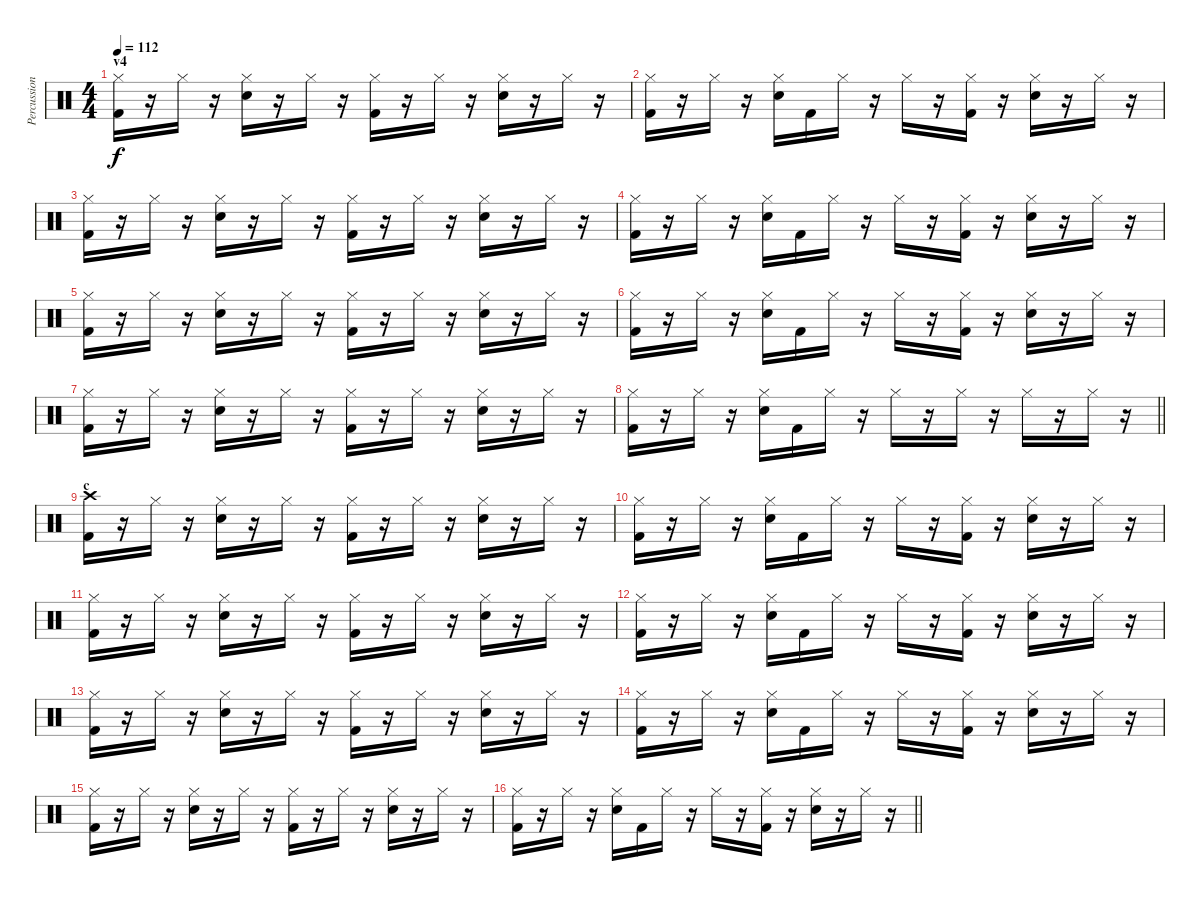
\track ("Percussion" "Percussion") {instrument percussion}
\staff {score}
\articulation defaults
\ts (4 4)
\section ("" "v4")
\tempo 112
\clef neutral
\ks c
("Hi-Hat (closed)" "Kick (hit) 2").16{dy f} r.16 "Hi-Hat (closed)".16 r.16 ("Hi-Hat (closed)" "Snare (hit) 2").16 r.16 "Hi-Hat (closed)".16 r.16 ("Hi-Hat (closed)" "Kick (hit) 2").16 r.16 "Hi-Hat (closed)".16 r.16 ("Hi-Hat (closed)" "Snare (hit) 2").16 r.16 "Hi-Hat (closed)".16 r.16 |
("Hi-Hat (closed)" "Kick (hit) 2").16 r.16 "Hi-Hat (closed)".16 r.16 ("Hi-Hat (closed)" "Snare (hit) 2").16 "Kick (hit) 2".16 "Hi-Hat (closed)".16 r.16 "Hi-Hat (closed)".16 r.16 ("Hi-Hat (closed)" "Kick (hit) 2").16 r.16 ("Hi-Hat (closed)" "Snare (hit) 2").16 r.16 "Hi-Hat (closed)".16 r.16 |
("Hi-Hat (closed)" "Kick (hit) 2").16 r.16 "Hi-Hat (closed)".16 r.16 ("Hi-Hat (closed)" "Snare (hit) 2").16 r.16 "Hi-Hat (closed)".16 r.16 ("Hi-Hat (closed)" "Kick (hit) 2").16 r.16 "Hi-Hat (closed)".16 r.16 ("Hi-Hat (closed)" "Snare (hit) 2").16 r.16 "Hi-Hat (closed)".16 r.16 |
("Hi-Hat (closed)" "Kick (hit) 2").16 r.16 "Hi-Hat (closed)".16 r.16 ("Hi-Hat (closed)" "Snare (hit) 2").16 "Kick (hit) 2".16 "Hi-Hat (closed)".16 r.16 "Hi-Hat (closed)".16 r.16 ("Hi-Hat (closed)" "Kick (hit) 2").16 r.16 ("Hi-Hat (closed)" "Snare (hit) 2").16 r.16 "Hi-Hat (closed)".16 r.16 |
("Hi-Hat (closed)" "Kick (hit) 2").16 r.16 "Hi-Hat (closed)".16 r.16 ("Hi-Hat (closed)" "Snare (hit) 2").16 r.16 "Hi-Hat (closed)".16 r.16 ("Hi-Hat (closed)" "Kick (hit) 2").16 r.16 "Hi-Hat (closed)".16 r.16 ("Hi-Hat (closed)" "Snare (hit) 2").16 r.16 "Hi-Hat (closed)".16 r.16 |
("Hi-Hat (closed)" "Kick (hit) 2").16 r.16 "Hi-Hat (closed)".16 r.16 ("Hi-Hat (closed)" "Snare (hit) 2").16 "Kick (hit) 2".16 "Hi-Hat (closed)".16 r.16 "Hi-Hat (closed)".16 r.16 ("Hi-Hat (closed)" "Kick (hit) 2").16 r.16 ("Hi-Hat (closed)" "Snare (hit) 2").16 r.16 "Hi-Hat (closed)".16 r.16 |
("Hi-Hat (closed)" "Kick (hit) 2").16 r.16 "Hi-Hat (closed)".16 r.16 ("Hi-Hat (closed)" "Snare (hit) 2").16 r.16 "Hi-Hat (closed)".16 r.16 ("Hi-Hat (closed)" "Kick (hit) 2").16 r.16 "Hi-Hat (closed)".16 r.16 ("Hi-Hat (closed)" "Snare (hit) 2").16 r.16 "Hi-Hat (closed)".16 r.16 |
\barLineRight lightlight
("Hi-Hat (closed)" "Kick (hit) 2").16 r.16 "Hi-Hat (closed)".16 r.16 ("Hi-Hat (closed)" "Snare (hit) 2").16 "Kick (hit) 2".16 "Hi-Hat (closed)".16 r.16 "Hi-Hat (closed)".16 r.16 "Hi-Hat (closed)".16 r.16 "Hi-Hat (closed)".16 r.16 "Hi-Hat (closed)".16 r.16 |
\section ("" "c")
("Crash high (hit)" "Kick (hit) 2").16 r.16 "Hi-Hat (closed)".16 r.16 ("Hi-Hat (closed)" "Snare (hit) 2").16 r.16 "Hi-Hat (closed)".16 r.16 ("Hi-Hat (closed)" "Kick (hit) 2").16 r.16 "Hi-Hat (closed)".16 r.16 ("Hi-Hat (closed)" "Snare (hit) 2").16 r.16 "Hi-Hat (closed)".16 r.16 |
("Hi-Hat (closed)" "Kick (hit) 2").16 r.16 "Hi-Hat (closed)".16 r.16 ("Hi-Hat (closed)" "Snare (hit) 2").16 "Kick (hit) 2".16 "Hi-Hat (closed)".16 r.16 "Hi-Hat (closed)".16 r.16 ("Hi-Hat (closed)" "Kick (hit) 2").16 r.16 ("Hi-Hat (closed)" "Snare (hit) 2").16 r.16 "Hi-Hat (closed)".16 r.16 |
("Hi-Hat (closed)" "Kick (hit) 2").16 r.16 "Hi-Hat (closed)".16 r.16 ("Hi-Hat (closed)" "Snare (hit) 2").16 r.16 "Hi-Hat (closed)".16 r.16 ("Hi-Hat (closed)" "Kick (hit) 2").16 r.16 "Hi-Hat (closed)".16 r.16 ("Hi-Hat (closed)" "Snare (hit) 2").16 r.16 "Hi-Hat (closed)".16 r.16 |
("Hi-Hat (closed)" "Kick (hit) 2").16 r.16 "Hi-Hat (closed)".16 r.16 ("Hi-Hat (closed)" "Snare (hit) 2").16 "Kick (hit) 2".16 "Hi-Hat (closed)".16 r.16 "Hi-Hat (closed)".16 r.16 ("Hi-Hat (closed)" "Kick (hit) 2").16 r.16 ("Hi-Hat (closed)" "Snare (hit) 2").16 r.16 "Hi-Hat (closed)".16 r.16 |
("Hi-Hat (closed)" "Kick (hit) 2").16 r.16 "Hi-Hat (closed)".16 r.16 ("Hi-Hat (closed)" "Snare (hit) 2").16 r.16 "Hi-Hat (closed)".16 r.16 ("Hi-Hat (closed)" "Kick (hit) 2").16 r.16 "Hi-Hat (closed)".16 r.16 ("Hi-Hat (closed)" "Snare (hit) 2").16 r.16 "Hi-Hat (closed)".16 r.16 |
("Hi-Hat (closed)" "Kick (hit) 2").16 r.16 "Hi-Hat (closed)".16 r.16 ("Hi-Hat (closed)" "Snare (hit) 2").16 "Kick (hit) 2".16 "Hi-Hat (closed)".16 r.16 "Hi-Hat (closed)".16 r.16 ("Hi-Hat (closed)" "Kick (hit) 2").16 r.16 ("Hi-Hat (closed)" "Snare (hit) 2").16 r.16 "Hi-Hat (closed)".16 r.16 |
("Hi-Hat (closed)" "Kick (hit) 2").16 r.16 "Hi-Hat (closed)".16 r.16 ("Hi-Hat (closed)" "Snare (hit) 2").16 r.16 "Hi-Hat (closed)".16 r.16 ("Hi-Hat (closed)" "Kick (hit) 2").16 r.16 "Hi-Hat (closed)".16 r.16 ("Hi-Hat (closed)" "Snare (hit) 2").16 r.16 "Hi-Hat (closed)".16 r.16 |
\barLineRight lightlight
("Hi-Hat (closed)" "Kick (hit) 2").16 r.16 "Hi-Hat (closed)".16 r.16 ("Hi-Hat (closed)" "Snare (hit) 2").16 "Kick (hit) 2".16 "Hi-Hat (closed)".16 r.16 "Hi-Hat (closed)".16 r.16 ("Hi-Hat (closed)" "Kick (hit) 2").16 r.16 ("Hi-Hat (closed)" "Snare (hit) 2").16 r.16 "Hi-Hat (closed)".16 r.16
